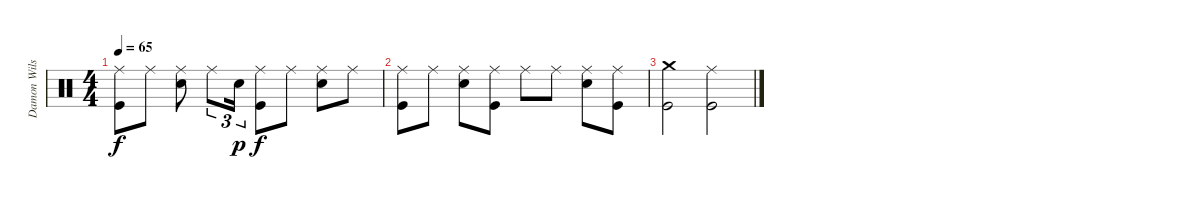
\track ("Damon Wilson" "Damon Wils") {instrument percussion}
\staff {score}
\articulation defaults
\ts (4 4)
\tempo 65
\clef neutral
\ks c
("Ride (middle)" "Kick (hit)").8{dy f} "Ride (middle)".8 ("Ride (middle)" "Electric Snare (hit)").8 "Ride (middle)".8{tu (3 2)} "Electric Snare (hit)".16{tu (3 2) dy p} ("Ride (middle)" "Kick (hit)").8{dy f} "Ride (middle)".8 ("Ride (middle)" "Electric Snare (hit)").8 "Ride (middle)".8 |
("Ride (middle)" "Kick (hit)").8 "Ride (middle)".8 ("Ride (middle)" "Electric Snare (hit)").8 ("Ride (middle)" "Kick (hit)").8 "Ride (middle)".8 "Ride (middle)".8 ("Ride (middle)" "Electric Snare (hit)").8 ("Ride (middle)" "Kick (hit)").8 |
("Crash medium (hit)" "Kick (hit)").2 ("Ride (middle)" "Kick (hit)").2
